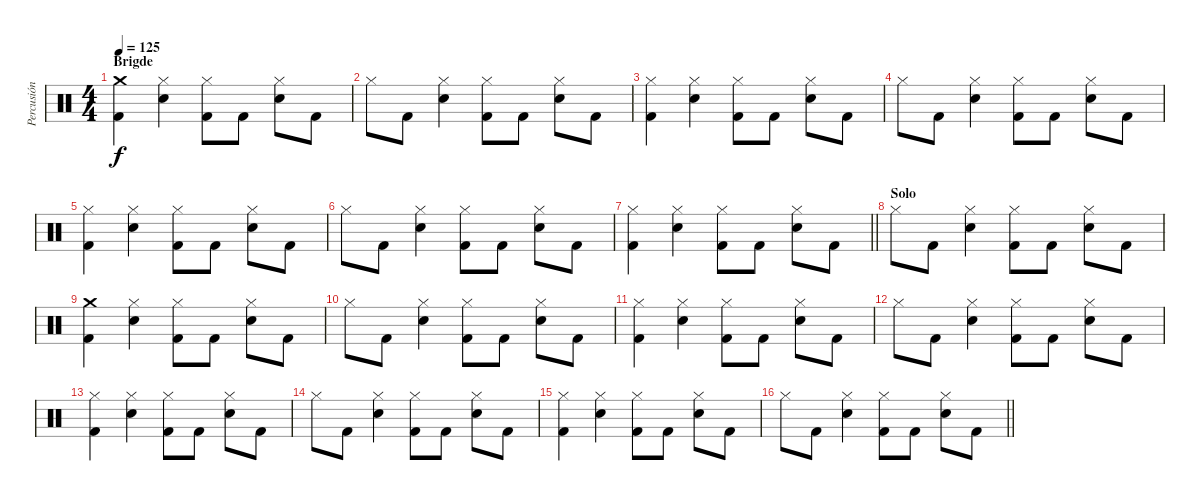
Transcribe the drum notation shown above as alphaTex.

\track ("Percusión" "Percusión") {instrument percussion}
\staff {score}
\articulation defaults
\ts (4 4)
\section ("" "Brigde")
\tempo 125
\clef neutral
\ks c
("Crash medium (hit)" "Kick (hit) 2").4{dy f} ("Snare (hit) 2" "Hi-Hat (closed)").4 ("Kick (hit) 2" "Hi-Hat (closed)").8 "Kick (hit) 2".8 ("Hi-Hat (closed)" "Snare (hit) 2").8 "Kick (hit) 2".8 |
"Hi-Hat (closed)".8 "Kick (hit) 2".8 ("Hi-Hat (closed)" "Snare (hit) 2").4 ("Hi-Hat (closed)" "Kick (hit) 2").8 "Kick (hit) 2".8 ("Hi-Hat (closed)" "Snare (hit) 2").8 "Kick (hit) 2".8 |
("Hi-Hat (closed)" "Kick (hit) 2").4 ("Snare (hit) 2" "Hi-Hat (closed)").4 ("Kick (hit) 2" "Hi-Hat (closed)").8 "Kick (hit) 2".8 ("Hi-Hat (closed)" "Snare (hit) 2").8 "Kick (hit) 2".8 |
"Hi-Hat (closed)".8 "Kick (hit) 2".8 ("Hi-Hat (closed)" "Snare (hit) 2").4 ("Hi-Hat (closed)" "Kick (hit) 2").8 "Kick (hit) 2".8 ("Hi-Hat (closed)" "Snare (hit) 2").8 "Kick (hit) 2".8 |
("Hi-Hat (closed)" "Kick (hit) 2").4 ("Snare (hit) 2" "Hi-Hat (closed)").4 ("Kick (hit) 2" "Hi-Hat (closed)").8 "Kick (hit) 2".8 ("Hi-Hat (closed)" "Snare (hit) 2").8 "Kick (hit) 2".8 |
"Hi-Hat (closed)".8 "Kick (hit) 2".8 ("Hi-Hat (closed)" "Snare (hit) 2").4 ("Hi-Hat (closed)" "Kick (hit) 2").8 "Kick (hit) 2".8 ("Hi-Hat (closed)" "Snare (hit) 2").8 "Kick (hit) 2".8 |
\barLineRight lightlight
("Hi-Hat (closed)" "Kick (hit) 2").4 ("Snare (hit) 2" "Hi-Hat (closed)").4 ("Kick (hit) 2" "Hi-Hat (closed)").8 "Kick (hit) 2".8 ("Hi-Hat (closed)" "Snare (hit) 2").8 "Kick (hit) 2".8 |
\section ("" "Solo")
"Hi-Hat (closed)".8 "Kick (hit) 2".8 ("Hi-Hat (closed)" "Snare (hit) 2").4 ("Hi-Hat (closed)" "Kick (hit) 2").8 "Kick (hit) 2".8 ("Hi-Hat (closed)" "Snare (hit) 2").8 "Kick (hit) 2".8 |
("Crash medium (hit)" "Kick (hit) 2").4 ("Snare (hit) 2" "Hi-Hat (closed)").4 ("Kick (hit) 2" "Hi-Hat (closed)").8 "Kick (hit) 2".8 ("Hi-Hat (closed)" "Snare (hit) 2").8 "Kick (hit) 2".8 |
"Hi-Hat (closed)".8 "Kick (hit) 2".8 ("Hi-Hat (closed)" "Snare (hit) 2").4 ("Hi-Hat (closed)" "Kick (hit) 2").8 "Kick (hit) 2".8 ("Hi-Hat (closed)" "Snare (hit) 2").8 "Kick (hit) 2".8 |
("Hi-Hat (closed)" "Kick (hit) 2").4 ("Snare (hit) 2" "Hi-Hat (closed)").4 ("Kick (hit) 2" "Hi-Hat (closed)").8 "Kick (hit) 2".8 ("Hi-Hat (closed)" "Snare (hit) 2").8 "Kick (hit) 2".8 |
"Hi-Hat (closed)".8 "Kick (hit) 2".8 ("Hi-Hat (closed)" "Snare (hit) 2").4 ("Hi-Hat (closed)" "Kick (hit) 2").8 "Kick (hit) 2".8 ("Hi-Hat (closed)" "Snare (hit) 2").8 "Kick (hit) 2".8 |
("Hi-Hat (closed)" "Kick (hit) 2").4 ("Snare (hit) 2" "Hi-Hat (closed)").4 ("Kick (hit) 2" "Hi-Hat (closed)").8 "Kick (hit) 2".8 ("Hi-Hat (closed)" "Snare (hit) 2").8 "Kick (hit) 2".8 |
"Hi-Hat (closed)".8 "Kick (hit) 2".8 ("Hi-Hat (closed)" "Snare (hit) 2").4 ("Hi-Hat (closed)" "Kick (hit) 2").8 "Kick (hit) 2".8 ("Hi-Hat (closed)" "Snare (hit) 2").8 "Kick (hit) 2".8 |
("Hi-Hat (closed)" "Kick (hit) 2").4 ("Snare (hit) 2" "Hi-Hat (closed)").4 ("Kick (hit) 2" "Hi-Hat (closed)").8 "Kick (hit) 2".8 ("Hi-Hat (closed)" "Snare (hit) 2").8 "Kick (hit) 2".8 |
\barLineRight lightlight "Hi-Hat (closed)".8 "Kick (hit) 2".8
("Hi-Hat (closed)" "Snare (hit) 2").4 ("Hi-Hat (closed)" "Kick (hit) 2").8 "Kick (hit) 2".8 ("Hi-Hat (closed)" "Snare (hit) 2").8 "Kick (hit) 2".8
